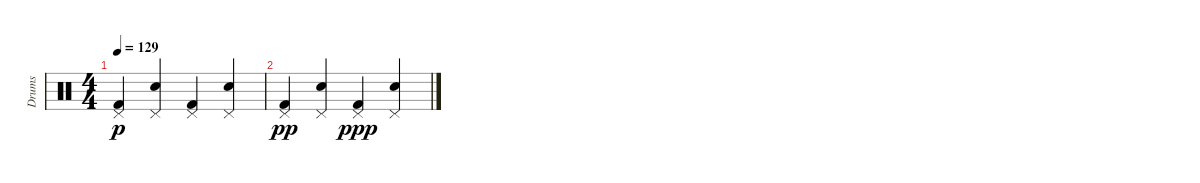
\track ("Drums" "Drums") {instrument percussion}
\staff {score}
\articulation defaults
\ts (4 4)
\tempo 129
\clef neutral
\ks c
("Pedal Hi-Hat (hit)" "Kick (hit) 2").4{dy p} ("Pedal Hi-Hat (hit)" "Snare (hit) 2").4 ("Pedal Hi-Hat (hit)" "Kick (hit) 2").4 ("Pedal Hi-Hat (hit)" "Snare (hit) 2").4 |
("Pedal Hi-Hat (hit)" "Kick (hit) 2").4{dy pp} ("Pedal Hi-Hat (hit)" "Snare (hit) 2").4 ("Pedal Hi-Hat (hit)" "Kick (hit) 2").4{dy ppp} ("Pedal Hi-Hat (hit)" "Snare (hit) 2").4
